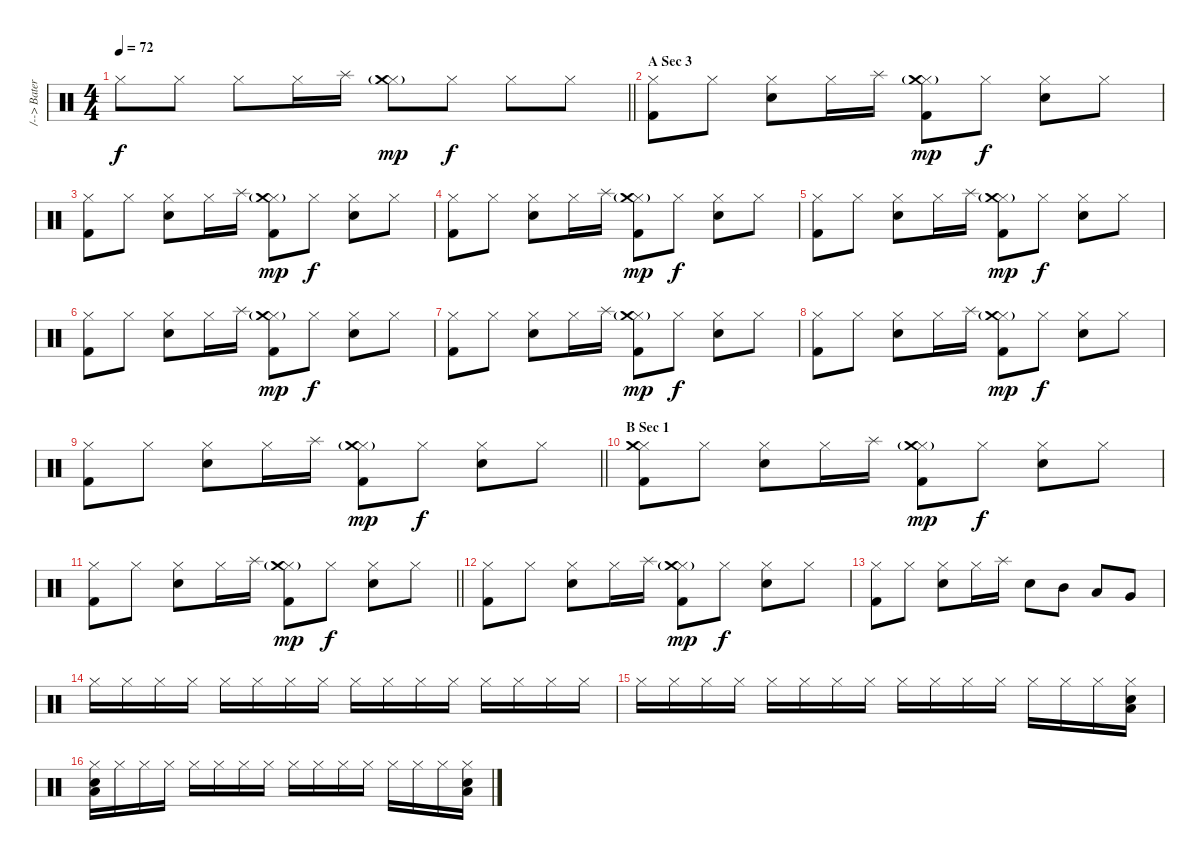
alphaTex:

\track ("/--> Bateria <---/" "/--> Bater") {instrument percussion}
\staff {score}
\articulation defaults
\ts (4 4)
\tempo 72
\clef neutral
\barLineRight lightlight
\ks c "Hi-Hat (closed)".8{dy f} "Hi-Hat (closed)".8 "Hi-Hat (closed)".8 "Hi-Hat (closed)".16 "Splash (hit)".16
("Hi-Hat (closed)" "Crash medium (hit)"{g}).8{dy mp} "Hi-Hat (closed)".8{dy f} "Hi-Hat (closed)".8 "Hi-Hat (closed)".8 |
\section ("" "A Sec 3")
("Hi-Hat (closed)" "Kick (hit) 2").8 "Hi-Hat (closed)".8 ("Hi-Hat (closed)" "Electric Snare (hit)").8 "Hi-Hat (closed)".16 "Splash (hit)".16 ("Hi-Hat (closed)" "Crash medium (hit)"{g} "Kick (hit) 2").8{dy mp} "Hi-Hat (closed)".8{dy f} ("Hi-Hat (closed)" "Electric Snare (hit)").8 "Hi-Hat (closed)".8 |
("Hi-Hat (closed)" "Kick (hit) 2").8 "Hi-Hat (closed)".8 ("Hi-Hat (closed)" "Electric Snare (hit)").8 "Hi-Hat (closed)".16 "Splash (hit)".16 ("Hi-Hat (closed)" "Crash medium (hit)"{g} "Kick (hit) 2").8{dy mp} "Hi-Hat (closed)".8{dy f} ("Hi-Hat (closed)" "Electric Snare (hit)").8 "Hi-Hat (closed)".8 |
("Hi-Hat (closed)" "Kick (hit) 2").8 "Hi-Hat (closed)".8 ("Hi-Hat (closed)" "Electric Snare (hit)").8 "Hi-Hat (closed)".16 "Splash (hit)".16 ("Hi-Hat (closed)" "Crash medium (hit)"{g} "Kick (hit) 2").8{dy mp} "Hi-Hat (closed)".8{dy f} ("Hi-Hat (closed)" "Electric Snare (hit)").8 "Hi-Hat (closed)".8 |
("Hi-Hat (closed)" "Kick (hit) 2").8 "Hi-Hat (closed)".8 ("Hi-Hat (closed)" "Electric Snare (hit)").8 "Hi-Hat (closed)".16 "Splash (hit)".16 ("Hi-Hat (closed)" "Crash medium (hit)"{g} "Kick (hit) 2").8{dy mp} "Hi-Hat (closed)".8{dy f} ("Hi-Hat (closed)" "Electric Snare (hit)").8 "Hi-Hat (closed)".8 |
("Hi-Hat (closed)" "Kick (hit) 2").8 "Hi-Hat (closed)".8 ("Hi-Hat (closed)" "Electric Snare (hit)").8 "Hi-Hat (closed)".16 "Splash (hit)".16 ("Hi-Hat (closed)" "Crash medium (hit)"{g} "Kick (hit) 2").8{dy mp} "Hi-Hat (closed)".8{dy f} ("Hi-Hat (closed)" "Electric Snare (hit)").8 "Hi-Hat (closed)".8 |
("Hi-Hat (closed)" "Kick (hit) 2").8 "Hi-Hat (closed)".8 ("Hi-Hat (closed)" "Electric Snare (hit)").8 "Hi-Hat (closed)".16 "Splash (hit)".16 ("Hi-Hat (closed)" "Crash medium (hit)"{g} "Kick (hit) 2").8{dy mp} "Hi-Hat (closed)".8{dy f} ("Hi-Hat (closed)" "Electric Snare (hit)").8 "Hi-Hat (closed)".8 |
("Hi-Hat (closed)" "Kick (hit) 2").8 "Hi-Hat (closed)".8 ("Hi-Hat (closed)" "Electric Snare (hit)").8 "Hi-Hat (closed)".16 "Splash (hit)".16 ("Hi-Hat (closed)" "Crash medium (hit)"{g} "Kick (hit) 2").8{dy mp} "Hi-Hat (closed)".8{dy f} ("Hi-Hat (closed)" "Electric Snare (hit)").8 "Hi-Hat (closed)".8 |
\barLineRight lightlight
("Hi-Hat (closed)" "Kick (hit) 2").8 "Hi-Hat (closed)".8 ("Hi-Hat (closed)" "Electric Snare (hit)").8 "Hi-Hat (closed)".16 "Splash (hit)".16 ("Hi-Hat (closed)" "Crash medium (hit)"{g} "Kick (hit) 2").8{dy mp} "Hi-Hat (closed)".8{dy f} ("Hi-Hat (closed)" "Electric Snare (hit)").8 "Hi-Hat (closed)".8 |
\section ("" "B Sec 1")
("Hi-Hat (closed)" "Crash medium (hit)" "Kick (hit) 2").8 "Hi-Hat (closed)".8 ("Hi-Hat (closed)" "Electric Snare (hit)").8 "Hi-Hat (closed)".16 "Splash (hit)".16 ("Hi-Hat (closed)" "Crash medium (hit)"{g} "Kick (hit) 2").8{dy mp} "Hi-Hat (closed)".8{dy f} ("Hi-Hat (closed)" "Electric Snare (hit)").8 "Hi-Hat (closed)".8 |
\barLineRight lightlight
("Hi-Hat (closed)" "Kick (hit) 2").8 "Hi-Hat (closed)".8 ("Hi-Hat (closed)" "Electric Snare (hit)").8 "Hi-Hat (closed)".16 "Splash (hit)".16 ("Hi-Hat (closed)" "Crash medium (hit)"{g} "Kick (hit) 2").8{dy mp} "Hi-Hat (closed)".8{dy f} ("Hi-Hat (closed)" "Electric Snare (hit)").8 "Hi-Hat (closed)".8 |
\section ("" "")
("Hi-Hat (closed)" "Kick (hit) 2").8 "Hi-Hat (closed)".8 ("Hi-Hat (closed)" "Electric Snare (hit)").8 "Hi-Hat (closed)".16 "Splash (hit)".16 ("Hi-Hat (closed)" "Crash medium (hit)"{g} "Kick (hit) 2").8{dy mp} "Hi-Hat (closed)".8{dy f} ("Hi-Hat (closed)" "Electric Snare (hit)").8 "Hi-Hat (closed)".8 |
("Hi-Hat (closed)" "Kick (hit) 2").8 "Hi-Hat (closed)".8 ("Hi-Hat (closed)" "Electric Snare (hit)").8 "Hi-Hat (closed)".16 "Splash (hit)".16 "Electric Snare (hit)".8 "Mid Tom (hit)".8 "Low Tom (hit)".8 "Very Low Tom (hit)".8 |
"Hi-Hat (closed)".16 "Hi-Hat (closed)".16 "Hi-Hat (closed)".16 "Hi-Hat (closed)".16 "Hi-Hat (closed)".16 "Hi-Hat (closed)".16 "Hi-Hat (closed)".16 "Hi-Hat (closed)".16 "Hi-Hat (closed)".16 "Hi-Hat (closed)".16 "Hi-Hat (closed)".16 "Hi-Hat (closed)".16 "Hi-Hat (closed)".16 "Hi-Hat (closed)".16 "Hi-Hat (closed)".16 "Hi-Hat (closed)".16 |
"Hi-Hat (closed)".16 "Hi-Hat (closed)".16 "Hi-Hat (closed)".16 "Hi-Hat (closed)".16 "Hi-Hat (closed)".16 "Hi-Hat (closed)".16 "Hi-Hat (closed)".16 "Hi-Hat (closed)".16 "Hi-Hat (closed)".16 "Hi-Hat (closed)".16 "Hi-Hat (closed)".16 "Hi-Hat (closed)".16 "Hi-Hat (closed)".16 "Hi-Hat (closed)".16 "Hi-Hat (closed)".16 ("Hi-Hat (closed)" "Snare (hit) 2" "Low Tom (hit)").16 |
("Hi-Hat (closed)" "Snare (hit) 2" "Low Tom (hit)").16 "Hi-Hat (closed)".16 "Hi-Hat (closed)".16 "Hi-Hat (closed)".16 "Hi-Hat (closed)".16 "Hi-Hat (closed)".16 "Hi-Hat (closed)".16 "Hi-Hat (closed)".16 "Hi-Hat (closed)".16 "Hi-Hat (closed)".16 "Hi-Hat (closed)".16 "Hi-Hat (closed)".16 "Hi-Hat (closed)".16 "Hi-Hat (closed)".16 "Hi-Hat (closed)".16 ("Hi-Hat (closed)" "Snare (hit) 2" "Low Tom (hit)").16
